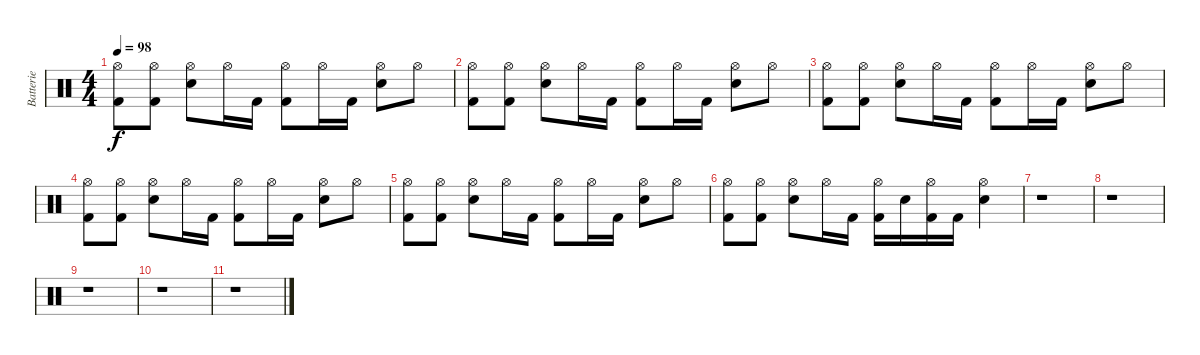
\track ("Batterie" "Batterie") {instrument percussion}
\staff {score}
\articulation defaults
\ts (4 4)
\tempo 98
\clef neutral
\ks c
("Hi-Hat (open)" "Kick (hit) 2").8{dy f} ("Hi-Hat (open)" "Kick (hit) 2").8 ("Hi-Hat (open)" "Snare (hit) 2").8 "Hi-Hat (open)".16 "Kick (hit) 2".16 ("Hi-Hat (open)" "Kick (hit) 2").8 "Hi-Hat (open)".16 "Kick (hit) 2".16 ("Hi-Hat (open)" "Snare (hit) 2").8 "Hi-Hat (open)".8 |
("Hi-Hat (open)" "Kick (hit) 2").8 ("Hi-Hat (open)" "Kick (hit) 2").8 ("Hi-Hat (open)" "Snare (hit) 2").8 "Hi-Hat (open)".16 "Kick (hit) 2".16 ("Hi-Hat (open)" "Kick (hit) 2").8 "Hi-Hat (open)".16 "Kick (hit) 2".16 ("Hi-Hat (open)" "Snare (hit) 2").8 "Hi-Hat (open)".8 |
("Hi-Hat (open)" "Kick (hit) 2").8 ("Hi-Hat (open)" "Kick (hit) 2").8 ("Hi-Hat (open)" "Snare (hit) 2").8 "Hi-Hat (open)".16 "Kick (hit) 2".16 ("Hi-Hat (open)" "Kick (hit) 2").8 "Hi-Hat (open)".16 "Kick (hit) 2".16 ("Hi-Hat (open)" "Snare (hit) 2").8 "Hi-Hat (open)".8 |
("Hi-Hat (open)" "Kick (hit) 2").8 ("Hi-Hat (open)" "Kick (hit) 2").8 ("Hi-Hat (open)" "Snare (hit) 2").8 "Hi-Hat (open)".16 "Kick (hit) 2".16 ("Hi-Hat (open)" "Kick (hit) 2").8 "Hi-Hat (open)".16 "Kick (hit) 2".16 ("Hi-Hat (open)" "Snare (hit) 2").8 "Hi-Hat (open)".8 |
("Hi-Hat (open)" "Kick (hit) 2").8 ("Hi-Hat (open)" "Kick (hit) 2").8 ("Hi-Hat (open)" "Snare (hit) 2").8 "Hi-Hat (open)".16 "Kick (hit) 2".16 ("Hi-Hat (open)" "Kick (hit) 2").8 "Hi-Hat (open)".16 "Kick (hit) 2".16 ("Hi-Hat (open)" "Snare (hit) 2").8 "Hi-Hat (open)".8 |
("Hi-Hat (open)" "Kick (hit) 2").8 ("Hi-Hat (open)" "Kick (hit) 2").8 ("Hi-Hat (open)" "Snare (hit) 2").8 "Hi-Hat (open)".16 "Kick (hit) 2".16 ("Hi-Hat (open)" "Kick (hit) 2").16 "Snare (hit) 2".16 ("Hi-Hat (open)" "Kick (hit) 2").16 "Kick (hit) 2".16 ("Hi-Hat (open)" "Snare (hit) 2").4 |
r.1 |
r.1 |
r.1 |
r.1 |
r.1
